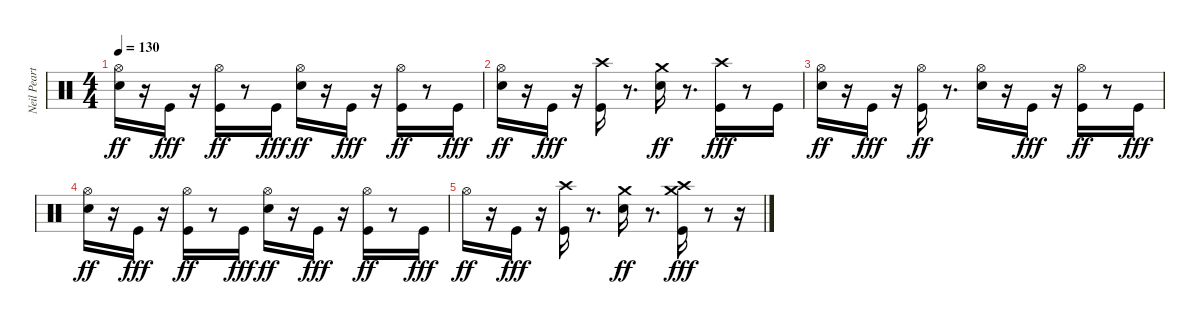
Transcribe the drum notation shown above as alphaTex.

\track ("Neil Peart" "Neil Peart") {instrument percussion}
\staff {score}
\articulation defaults
\ts (4 4)
\tempo 130
\clef neutral
\ks c
("Snare (hit) 2" "Hi-Hat (open)").16{dy ff} r.16 "Kick (hit)".16{dy fff} r.16 ("Kick (hit)" "Hi-Hat (open)").16{dy ff} r.8 "Kick (hit)".16{dy fff} ("Snare (hit) 2" "Hi-Hat (open)").16{dy ff} r.16 "Kick (hit)".16{dy fff} r.16 ("Kick (hit)" "Hi-Hat (open)").16{dy ff} r.8 "Kick (hit)".16{dy fff} |
("Snare (hit) 2" "Hi-Hat (open)").16{dy ff} r.16 "Kick (hit)".16{dy fff} r.16 ("Kick (hit)" "Crash high (hit)").16 r.8{d} ("Crash medium (hit)" "Snare (hit) 2").16{dy ff} r.8{d} ("Kick (hit)" "Crash high (hit)").16{dy fff} r.8 "Kick (hit)".16 |
("Snare (hit) 2" "Hi-Hat (open)").16{dy ff} r.16 "Kick (hit)".16{dy fff} r.16 ("Kick (hit)" "Hi-Hat (open)").16{dy ff} r.8{d} ("Snare (hit) 2" "Hi-Hat (open)").16 r.16 "Kick (hit)".16{dy fff} r.16 ("Kick (hit)" "Hi-Hat (open)").16{dy ff} r.8 "Kick (hit)".16{dy fff} |
("Snare (hit) 2" "Hi-Hat (open)").16{dy ff} r.16 "Kick (hit)".16{dy fff} r.16 ("Kick (hit)" "Hi-Hat (open)").16{dy ff} r.8 "Kick (hit)".16{dy fff} ("Snare (hit) 2" "Hi-Hat (open)").16{dy ff} r.16 "Kick (hit)".16{dy fff} r.16 ("Kick (hit)" "Hi-Hat (open)").16{dy ff} r.8 "Kick (hit)".16{dy fff} |
"Hi-Hat (open)".16{dy ff} r.16 "Kick (hit)".16{dy fff} r.16 ("Kick (hit)" "Crash high (hit)").16 r.8{d} ("Crash medium (hit)" "Snare (hit) 2").16{dy ff} r.8{d} ("Crash medium (hit)" "Kick (hit)" "Crash high (hit)").16{dy fff} r.8 r.16
